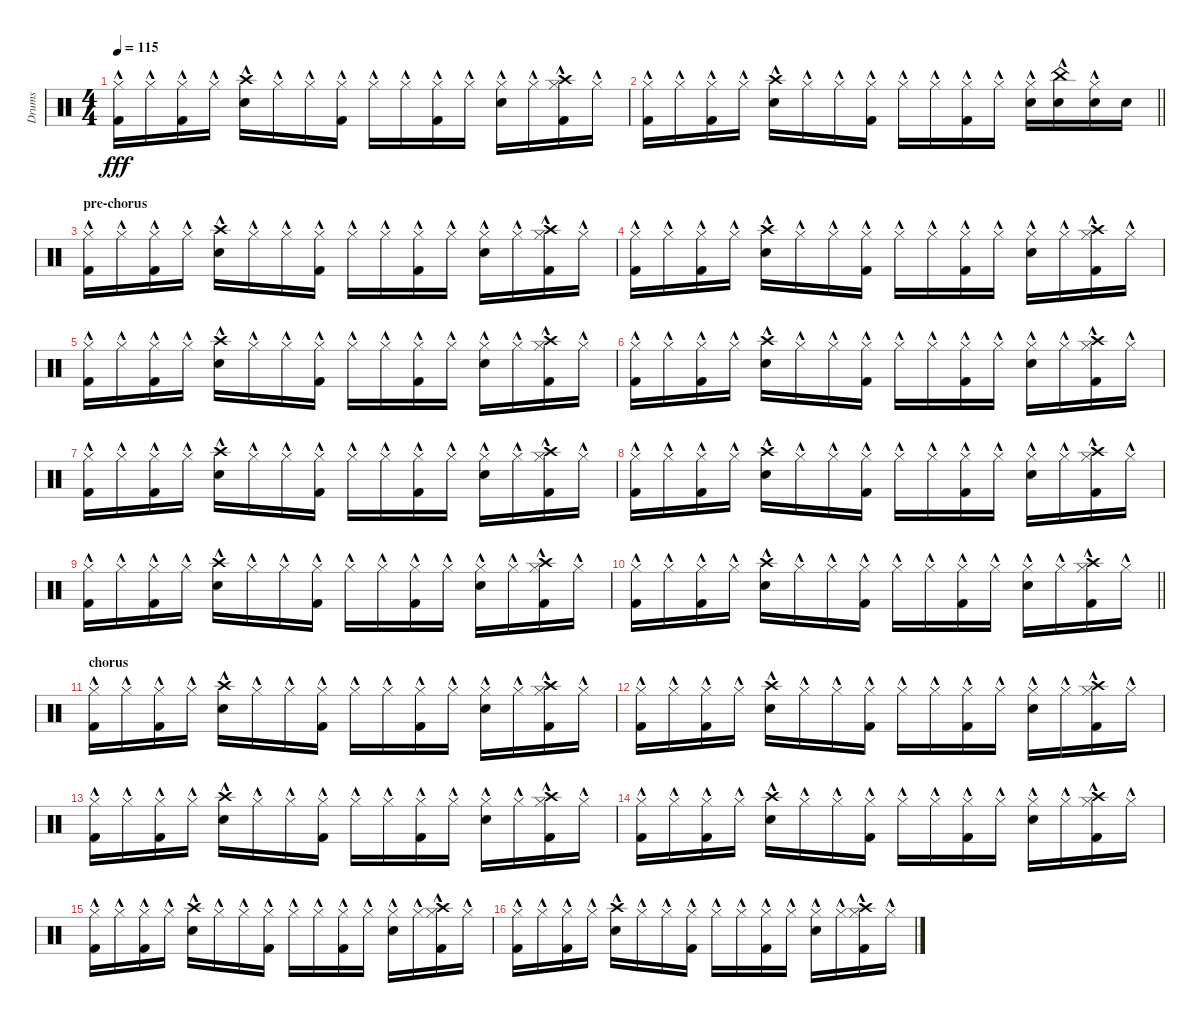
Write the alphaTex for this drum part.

\track ("Drums" "Drums") {instrument percussion}
\staff {score}
\articulation defaults
\ts (4 4)
\tempo 115
\clef neutral
\ks c
("Kick (hit) 2"{hac} "Hi-Hat (closed)").16{dy fff} "Hi-Hat (closed)"{hac}.16 ("Kick (hit) 2"{hac} "Hi-Hat (closed)").16 "Hi-Hat (closed)"{hac}.16 ("Electric Snare (hit)"{hac} "Crash high (hit)").16 "Hi-Hat (closed)"{hac}.16 "Hi-Hat (closed)"{hac}.16 ("Kick (hit) 2" "Hi-Hat (closed)"{hac}).16 "Hi-Hat (closed)"{hac}.16 "Hi-Hat (closed)"{hac}.16 ("Kick (hit) 2" "Hi-Hat (closed)"{hac}).16 "Hi-Hat (closed)"{hac}.16 ("Electric Snare (hit)" "Hi-Hat (closed)"{hac}).16 "Hi-Hat (closed)"{hac}.16 ("Crash high (hit)" "Kick (hit) 2" "Hi-Hat (closed)"{hac}).16 "Hi-Hat (closed)"{hac}.16 |
\barLineRight lightlight
("Kick (hit) 2"{hac} "Hi-Hat (closed)").16 "Hi-Hat (closed)"{hac}.16 ("Kick (hit) 2"{hac} "Hi-Hat (closed)").16 "Hi-Hat (closed)"{hac}.16 ("Electric Snare (hit)"{hac} "Crash high (hit)").16 "Hi-Hat (closed)"{hac}.16 "Hi-Hat (closed)"{hac}.16 ("Kick (hit) 2" "Hi-Hat (closed)"{hac}).16 "Hi-Hat (closed)"{hac}.16 "Hi-Hat (closed)"{hac}.16 ("Kick (hit) 2" "Hi-Hat (closed)"{hac}).16 "Hi-Hat (closed)"{hac}.16 ("Electric Snare (hit)" "Hi-Hat (closed)"{hac}).16 ("Electric Snare (hit)" "China (hit)"{hac}).16 ("Electric Snare (hit)" "Hi-Hat (closed)"{hac}).16 "Electric Snare (hit)".16 |
\section ("" "pre-chorus")
("Kick (hit) 2"{hac} "Hi-Hat (closed)").16 "Hi-Hat (closed)"{hac}.16 ("Kick (hit) 2"{hac} "Hi-Hat (closed)").16 "Hi-Hat (closed)"{hac}.16 ("Electric Snare (hit)"{hac} "Crash high (hit)").16 "Hi-Hat (closed)"{hac}.16 "Hi-Hat (closed)"{hac}.16 ("Kick (hit) 2" "Hi-Hat (closed)"{hac}).16 "Hi-Hat (closed)"{hac}.16 "Hi-Hat (closed)"{hac}.16 ("Kick (hit) 2" "Hi-Hat (closed)"{hac}).16 "Hi-Hat (closed)"{hac}.16 ("Electric Snare (hit)" "Hi-Hat (closed)"{hac}).16 "Hi-Hat (closed)"{hac}.16 ("Crash high (hit)" "Kick (hit) 2" "Hi-Hat (closed)"{hac}).16 "Hi-Hat (closed)"{hac}.16 |
("Kick (hit) 2"{hac} "Hi-Hat (closed)").16 "Hi-Hat (closed)"{hac}.16 ("Kick (hit) 2"{hac} "Hi-Hat (closed)").16 "Hi-Hat (closed)"{hac}.16 ("Electric Snare (hit)"{hac} "Crash high (hit)").16 "Hi-Hat (closed)"{hac}.16 "Hi-Hat (closed)"{hac}.16 ("Kick (hit) 2" "Hi-Hat (closed)"{hac}).16 "Hi-Hat (closed)"{hac}.16 "Hi-Hat (closed)"{hac}.16 ("Kick (hit) 2" "Hi-Hat (closed)"{hac}).16 "Hi-Hat (closed)"{hac}.16 ("Electric Snare (hit)" "Hi-Hat (closed)"{hac}).16 "Hi-Hat (closed)"{hac}.16 ("Crash high (hit)" "Kick (hit) 2" "Hi-Hat (closed)"{hac}).16 "Hi-Hat (closed)"{hac}.16 |
("Kick (hit) 2"{hac} "Hi-Hat (closed)").16 "Hi-Hat (closed)"{hac}.16 ("Kick (hit) 2"{hac} "Hi-Hat (closed)").16 "Hi-Hat (closed)"{hac}.16 ("Electric Snare (hit)"{hac} "Crash high (hit)").16 "Hi-Hat (closed)"{hac}.16 "Hi-Hat (closed)"{hac}.16 ("Kick (hit) 2" "Hi-Hat (closed)"{hac}).16 "Hi-Hat (closed)"{hac}.16 "Hi-Hat (closed)"{hac}.16 ("Kick (hit) 2" "Hi-Hat (closed)"{hac}).16 "Hi-Hat (closed)"{hac}.16 ("Electric Snare (hit)" "Hi-Hat (closed)"{hac}).16 "Hi-Hat (closed)"{hac}.16 ("Crash high (hit)" "Kick (hit) 2" "Hi-Hat (closed)"{hac}).16 "Hi-Hat (closed)"{hac}.16 |
("Kick (hit) 2"{hac} "Hi-Hat (closed)").16 "Hi-Hat (closed)"{hac}.16 ("Kick (hit) 2"{hac} "Hi-Hat (closed)").16 "Hi-Hat (closed)"{hac}.16 ("Electric Snare (hit)"{hac} "Crash high (hit)").16 "Hi-Hat (closed)"{hac}.16 "Hi-Hat (closed)"{hac}.16 ("Kick (hit) 2" "Hi-Hat (closed)"{hac}).16 "Hi-Hat (closed)"{hac}.16 "Hi-Hat (closed)"{hac}.16 ("Kick (hit) 2" "Hi-Hat (closed)"{hac}).16 "Hi-Hat (closed)"{hac}.16 ("Electric Snare (hit)" "Hi-Hat (closed)"{hac}).16 "Hi-Hat (closed)"{hac}.16 ("Crash high (hit)" "Kick (hit) 2" "Hi-Hat (closed)"{hac}).16 "Hi-Hat (closed)"{hac}.16 |
("Kick (hit) 2"{hac} "Hi-Hat (closed)").16 "Hi-Hat (closed)"{hac}.16 ("Kick (hit) 2"{hac} "Hi-Hat (closed)").16 "Hi-Hat (closed)"{hac}.16 ("Electric Snare (hit)"{hac} "Crash high (hit)").16 "Hi-Hat (closed)"{hac}.16 "Hi-Hat (closed)"{hac}.16 ("Kick (hit) 2" "Hi-Hat (closed)"{hac}).16 "Hi-Hat (closed)"{hac}.16 "Hi-Hat (closed)"{hac}.16 ("Kick (hit) 2" "Hi-Hat (closed)"{hac}).16 "Hi-Hat (closed)"{hac}.16 ("Electric Snare (hit)" "Hi-Hat (closed)"{hac}).16 "Hi-Hat (closed)"{hac}.16 ("Crash high (hit)" "Kick (hit) 2" "Hi-Hat (closed)"{hac}).16 "Hi-Hat (closed)"{hac}.16 |
("Kick (hit) 2"{hac} "Hi-Hat (closed)").16 "Hi-Hat (closed)"{hac}.16 ("Kick (hit) 2"{hac} "Hi-Hat (closed)").16 "Hi-Hat (closed)"{hac}.16 ("Electric Snare (hit)"{hac} "Crash high (hit)").16 "Hi-Hat (closed)"{hac}.16 "Hi-Hat (closed)"{hac}.16 ("Kick (hit) 2" "Hi-Hat (closed)"{hac}).16 "Hi-Hat (closed)"{hac}.16 "Hi-Hat (closed)"{hac}.16 ("Kick (hit) 2" "Hi-Hat (closed)"{hac}).16 "Hi-Hat (closed)"{hac}.16 ("Electric Snare (hit)" "Hi-Hat (closed)"{hac}).16 "Hi-Hat (closed)"{hac}.16 ("Crash high (hit)" "Kick (hit) 2" "Hi-Hat (closed)"{hac}).16 "Hi-Hat (closed)"{hac}.16 |
("Kick (hit) 2"{hac} "Hi-Hat (closed)").16 "Hi-Hat (closed)"{hac}.16 ("Kick (hit) 2"{hac} "Hi-Hat (closed)").16 "Hi-Hat (closed)"{hac}.16 ("Electric Snare (hit)"{hac} "Crash high (hit)").16 "Hi-Hat (closed)"{hac}.16 "Hi-Hat (closed)"{hac}.16 ("Kick (hit) 2" "Hi-Hat (closed)"{hac}).16 "Hi-Hat (closed)"{hac}.16 "Hi-Hat (closed)"{hac}.16 ("Kick (hit) 2" "Hi-Hat (closed)"{hac}).16 "Hi-Hat (closed)"{hac}.16 ("Electric Snare (hit)" "Hi-Hat (closed)"{hac}).16 "Hi-Hat (closed)"{hac}.16 ("Crash high (hit)" "Kick (hit) 2" "Hi-Hat (closed)"{hac}).16 "Hi-Hat (closed)"{hac}.16 |
\barLineRight lightlight
("Kick (hit) 2"{hac} "Hi-Hat (closed)").16 "Hi-Hat (closed)"{hac}.16 ("Kick (hit) 2"{hac} "Hi-Hat (closed)").16 "Hi-Hat (closed)"{hac}.16 ("Electric Snare (hit)"{hac} "Crash high (hit)").16 "Hi-Hat (closed)"{hac}.16 "Hi-Hat (closed)"{hac}.16 ("Kick (hit) 2" "Hi-Hat (closed)"{hac}).16 "Hi-Hat (closed)"{hac}.16 "Hi-Hat (closed)"{hac}.16 ("Kick (hit) 2" "Hi-Hat (closed)"{hac}).16 "Hi-Hat (closed)"{hac}.16 ("Electric Snare (hit)" "Hi-Hat (closed)"{hac}).16 "Hi-Hat (closed)"{hac}.16 ("Crash high (hit)" "Kick (hit) 2" "Hi-Hat (closed)"{hac}).16 "Hi-Hat (closed)"{hac}.16 |
\section ("" "chorus")
("Kick (hit) 2"{hac} "Hi-Hat (closed)").16 "Hi-Hat (closed)"{hac}.16 ("Kick (hit) 2"{hac} "Hi-Hat (closed)").16 "Hi-Hat (closed)"{hac}.16 ("Electric Snare (hit)"{hac} "Crash high (hit)").16 "Hi-Hat (closed)"{hac}.16 "Hi-Hat (closed)"{hac}.16 ("Kick (hit) 2" "Hi-Hat (closed)"{hac}).16 "Hi-Hat (closed)"{hac}.16 "Hi-Hat (closed)"{hac}.16 ("Kick (hit) 2" "Hi-Hat (closed)"{hac}).16 "Hi-Hat (closed)"{hac}.16 ("Electric Snare (hit)" "Hi-Hat (closed)"{hac}).16 "Hi-Hat (closed)"{hac}.16 ("Crash high (hit)" "Kick (hit) 2" "Hi-Hat (closed)"{hac}).16 "Hi-Hat (closed)"{hac}.16 |
("Kick (hit) 2"{hac} "Hi-Hat (closed)").16 "Hi-Hat (closed)"{hac}.16 ("Kick (hit) 2"{hac} "Hi-Hat (closed)").16 "Hi-Hat (closed)"{hac}.16 ("Electric Snare (hit)"{hac} "Crash high (hit)").16 "Hi-Hat (closed)"{hac}.16 "Hi-Hat (closed)"{hac}.16 ("Kick (hit) 2" "Hi-Hat (closed)"{hac}).16 "Hi-Hat (closed)"{hac}.16 "Hi-Hat (closed)"{hac}.16 ("Kick (hit) 2" "Hi-Hat (closed)"{hac}).16 "Hi-Hat (closed)"{hac}.16 ("Electric Snare (hit)" "Hi-Hat (closed)"{hac}).16 "Hi-Hat (closed)"{hac}.16 ("Crash high (hit)" "Kick (hit) 2" "Hi-Hat (closed)"{hac}).16 "Hi-Hat (closed)"{hac}.16 |
("Kick (hit) 2"{hac} "Hi-Hat (closed)").16 "Hi-Hat (closed)"{hac}.16 ("Kick (hit) 2"{hac} "Hi-Hat (closed)").16 "Hi-Hat (closed)"{hac}.16 ("Electric Snare (hit)"{hac} "Crash high (hit)").16 "Hi-Hat (closed)"{hac}.16 "Hi-Hat (closed)"{hac}.16 ("Kick (hit) 2" "Hi-Hat (closed)"{hac}).16 "Hi-Hat (closed)"{hac}.16 "Hi-Hat (closed)"{hac}.16 ("Kick (hit) 2" "Hi-Hat (closed)"{hac}).16 "Hi-Hat (closed)"{hac}.16 ("Electric Snare (hit)" "Hi-Hat (closed)"{hac}).16 "Hi-Hat (closed)"{hac}.16 ("Crash high (hit)" "Kick (hit) 2" "Hi-Hat (closed)"{hac}).16 "Hi-Hat (closed)"{hac}.16 |
("Kick (hit) 2"{hac} "Hi-Hat (closed)").16 "Hi-Hat (closed)"{hac}.16 ("Kick (hit) 2"{hac} "Hi-Hat (closed)").16 "Hi-Hat (closed)"{hac}.16 ("Electric Snare (hit)"{hac} "Crash high (hit)").16 "Hi-Hat (closed)"{hac}.16 "Hi-Hat (closed)"{hac}.16 ("Kick (hit) 2" "Hi-Hat (closed)"{hac}).16 "Hi-Hat (closed)"{hac}.16 "Hi-Hat (closed)"{hac}.16 ("Kick (hit) 2" "Hi-Hat (closed)"{hac}).16 "Hi-Hat (closed)"{hac}.16 ("Electric Snare (hit)" "Hi-Hat (closed)"{hac}).16 "Hi-Hat (closed)"{hac}.16 ("Crash high (hit)" "Kick (hit) 2" "Hi-Hat (closed)"{hac}).16 "Hi-Hat (closed)"{hac}.16 |
("Kick (hit) 2"{hac} "Hi-Hat (closed)").16 "Hi-Hat (closed)"{hac}.16 ("Kick (hit) 2"{hac} "Hi-Hat (closed)").16 "Hi-Hat (closed)"{hac}.16 ("Electric Snare (hit)"{hac} "Crash high (hit)").16 "Hi-Hat (closed)"{hac}.16 "Hi-Hat (closed)"{hac}.16 ("Kick (hit) 2" "Hi-Hat (closed)"{hac}).16 "Hi-Hat (closed)"{hac}.16 "Hi-Hat (closed)"{hac}.16 ("Kick (hit) 2" "Hi-Hat (closed)"{hac}).16 "Hi-Hat (closed)"{hac}.16 ("Electric Snare (hit)" "Hi-Hat (closed)"{hac}).16 "Hi-Hat (closed)"{hac}.16 ("Crash high (hit)" "Kick (hit) 2" "Hi-Hat (closed)"{hac}).16 "Hi-Hat (closed)"{hac}.16 |
("Kick (hit) 2"{hac} "Hi-Hat (closed)").16 "Hi-Hat (closed)"{hac}.16 ("Kick (hit) 2"{hac} "Hi-Hat (closed)").16 "Hi-Hat (closed)"{hac}.16 ("Electric Snare (hit)"{hac} "Crash high (hit)").16 "Hi-Hat (closed)"{hac}.16 "Hi-Hat (closed)"{hac}.16 ("Kick (hit) 2" "Hi-Hat (closed)"{hac}).16 "Hi-Hat (closed)"{hac}.16 "Hi-Hat (closed)"{hac}.16 ("Kick (hit) 2" "Hi-Hat (closed)"{hac}).16 "Hi-Hat (closed)"{hac}.16 ("Electric Snare (hit)" "Hi-Hat (closed)"{hac}).16 "Hi-Hat (closed)"{hac}.16 ("Crash high (hit)" "Kick (hit) 2" "Hi-Hat (closed)"{hac}).16 "Hi-Hat (closed)"{hac}.16
